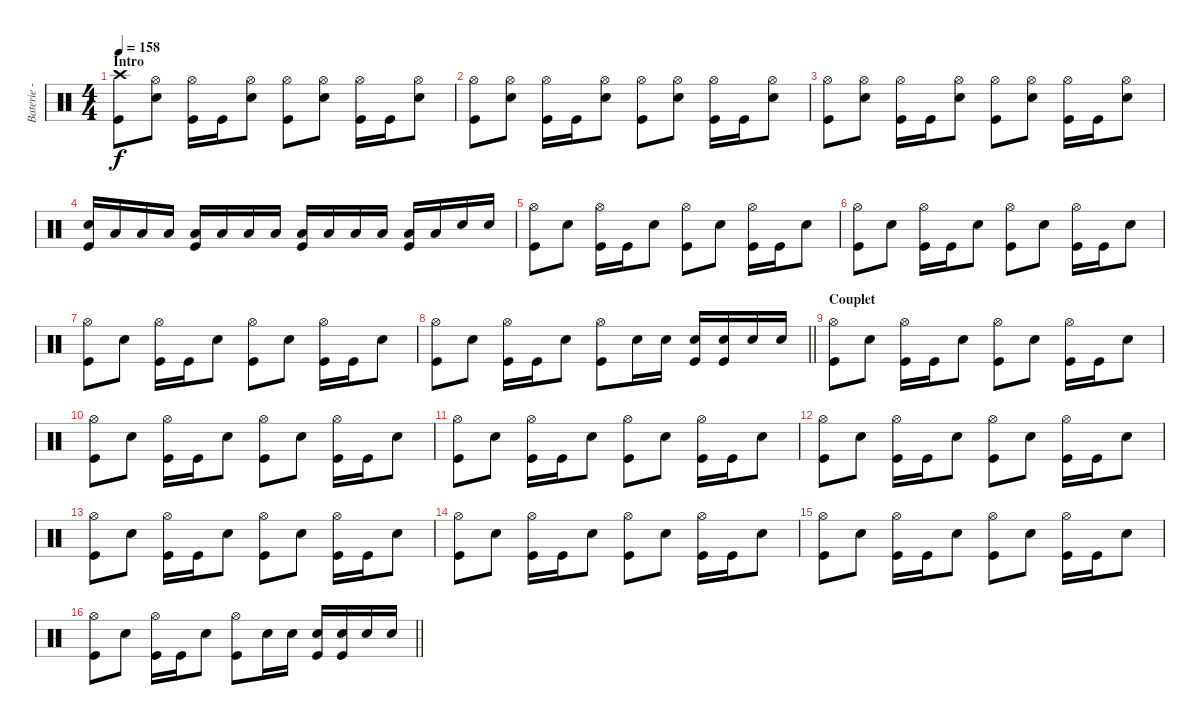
\track ("Baterie - Alex" "Baterie - ") {instrument percussion}
\staff {score}
\articulation defaults
\ts (4 4)
\section ("" "Intro")
\tempo 158
\clef neutral
\ks c
("Crash high (hit)" "Kick (hit)").8{dy f} ("Hi-Hat (open)" "Electric Snare (hit)").8 ("Hi-Hat (open)" "Kick (hit)").16 "Kick (hit)".16 ("Hi-Hat (open)" "Electric Snare (hit)").8 ("Hi-Hat (open)" "Kick (hit)").8 ("Hi-Hat (open)" "Electric Snare (hit)").8 ("Hi-Hat (open)" "Kick (hit)").16 "Kick (hit)".16 ("Hi-Hat (open)" "Electric Snare (hit)").8 |
("Hi-Hat (open)" "Kick (hit)").8 ("Hi-Hat (open)" "Electric Snare (hit)").8 ("Hi-Hat (open)" "Kick (hit)").16 "Kick (hit)".16 ("Hi-Hat (open)" "Electric Snare (hit)").8 ("Hi-Hat (open)" "Kick (hit)").8 ("Hi-Hat (open)" "Electric Snare (hit)").8 ("Hi-Hat (open)" "Kick (hit)").16 "Kick (hit)".16 ("Hi-Hat (open)" "Electric Snare (hit)").8 |
("Hi-Hat (open)" "Kick (hit)").8 ("Hi-Hat (open)" "Electric Snare (hit)").8 ("Hi-Hat (open)" "Kick (hit)").16 "Kick (hit)".16 ("Hi-Hat (open)" "Electric Snare (hit)").8 ("Hi-Hat (open)" "Kick (hit)").8 ("Hi-Hat (open)" "Electric Snare (hit)").8 ("Hi-Hat (open)" "Kick (hit)").16 "Kick (hit)".16 ("Hi-Hat (open)" "Electric Snare (hit)").8 |
("Electric Snare (hit)" "Kick (hit)").16 "Low Floor Tom (hit)".16 "Low Floor Tom (hit)".16 "Low Floor Tom (hit)".16 ("Low Floor Tom (hit)" "Kick (hit)").16 "Low Floor Tom (hit)".16 "Low Floor Tom (hit)".16 "Low Floor Tom (hit)".16 ("Low Floor Tom (hit)" "Kick (hit)").16 "Low Floor Tom (hit)".16 "Low Floor Tom (hit)".16 "Low Floor Tom (hit)".16 ("Low Floor Tom (hit)" "Kick (hit)").16 "Low Floor Tom (hit)".16 "Electric Snare (hit)".16 "Electric Snare (hit)".16 |
("Hi-Hat (open)" "Kick (hit)").8 "Electric Snare (hit)".8 ("Hi-Hat (open)" "Kick (hit)").16 "Kick (hit)".16 "Electric Snare (hit)".8 ("Hi-Hat (open)" "Kick (hit)").8 "Electric Snare (hit)".8 ("Hi-Hat (open)" "Kick (hit)").16 "Kick (hit)".16 "Electric Snare (hit)".8 |
("Hi-Hat (open)" "Kick (hit)").8 "Electric Snare (hit)".8 ("Hi-Hat (open)" "Kick (hit)").16 "Kick (hit)".16 "Electric Snare (hit)".8 ("Hi-Hat (open)" "Kick (hit)").8 "Electric Snare (hit)".8 ("Hi-Hat (open)" "Kick (hit)").16 "Kick (hit)".16 "Electric Snare (hit)".8 |
("Hi-Hat (open)" "Kick (hit)").8 "Electric Snare (hit)".8 ("Hi-Hat (open)" "Kick (hit)").16 "Kick (hit)".16 "Electric Snare (hit)".8 ("Hi-Hat (open)" "Kick (hit)").8 "Electric Snare (hit)".8 ("Hi-Hat (open)" "Kick (hit)").16 "Kick (hit)".16 "Electric Snare (hit)".8 |
\barLineRight lightlight
("Hi-Hat (open)" "Kick (hit)").8 "Electric Snare (hit)".8 ("Hi-Hat (open)" "Kick (hit)").16 "Kick (hit)".16 "Electric Snare (hit)".8 ("Hi-Hat (open)" "Kick (hit)").8 "Electric Snare (hit)".16 "Electric Snare (hit)".16 ("Electric Snare (hit)" "Kick (hit)").16 ("Electric Snare (hit)" "Kick (hit)").16 "Electric Snare (hit)".16 "Electric Snare (hit)".16 |
\section ("" "Couplet")
("Hi-Hat (open)" "Kick (hit)").8 "Electric Snare (hit)".8 ("Hi-Hat (open)" "Kick (hit)").16 "Kick (hit)".16 "Electric Snare (hit)".8 ("Hi-Hat (open)" "Kick (hit)").8 "Electric Snare (hit)".8 ("Hi-Hat (open)" "Kick (hit)").16 "Kick (hit)".16 "Electric Snare (hit)".8 |
("Hi-Hat (open)" "Kick (hit)").8 "Electric Snare (hit)".8 ("Hi-Hat (open)" "Kick (hit)").16 "Kick (hit)".16 "Electric Snare (hit)".8 ("Hi-Hat (open)" "Kick (hit)").8 "Electric Snare (hit)".8 ("Hi-Hat (open)" "Kick (hit)").16 "Kick (hit)".16 "Electric Snare (hit)".8 |
("Hi-Hat (open)" "Kick (hit)").8 "Electric Snare (hit)".8 ("Hi-Hat (open)" "Kick (hit)").16 "Kick (hit)".16 "Electric Snare (hit)".8 ("Hi-Hat (open)" "Kick (hit)").8 "Electric Snare (hit)".8 ("Hi-Hat (open)" "Kick (hit)").16 "Kick (hit)".16 "Electric Snare (hit)".8 |
("Hi-Hat (open)" "Kick (hit)").8 "Electric Snare (hit)".8 ("Hi-Hat (open)" "Kick (hit)").16 "Kick (hit)".16 "Electric Snare (hit)".8 ("Hi-Hat (open)" "Kick (hit)").8 "Electric Snare (hit)".8 ("Hi-Hat (open)" "Kick (hit)").16 "Kick (hit)".16 "Electric Snare (hit)".8 |
("Hi-Hat (open)" "Kick (hit)").8 "Electric Snare (hit)".8 ("Hi-Hat (open)" "Kick (hit)").16 "Kick (hit)".16 "Electric Snare (hit)".8 ("Hi-Hat (open)" "Kick (hit)").8 "Electric Snare (hit)".8 ("Hi-Hat (open)" "Kick (hit)").16 "Kick (hit)".16 "Electric Snare (hit)".8 |
("Hi-Hat (open)" "Kick (hit)").8 "Electric Snare (hit)".8 ("Hi-Hat (open)" "Kick (hit)").16 "Kick (hit)".16 "Electric Snare (hit)".8 ("Hi-Hat (open)" "Kick (hit)").8 "Electric Snare (hit)".8 ("Hi-Hat (open)" "Kick (hit)").16 "Kick (hit)".16 "Electric Snare (hit)".8 |
("Hi-Hat (open)" "Kick (hit)").8 "Electric Snare (hit)".8 ("Hi-Hat (open)" "Kick (hit)").16 "Kick (hit)".16 "Electric Snare (hit)".8 ("Hi-Hat (open)" "Kick (hit)").8 "Electric Snare (hit)".8 ("Hi-Hat (open)" "Kick (hit)").16 "Kick (hit)".16 "Electric Snare (hit)".8 |
\barLineRight lightlight
("Hi-Hat (open)" "Kick (hit)").8 "Electric Snare (hit)".8 ("Hi-Hat (open)" "Kick (hit)").16 "Kick (hit)".16 "Electric Snare (hit)".8 ("Hi-Hat (open)" "Kick (hit)").8 "Electric Snare (hit)".16 "Electric Snare (hit)".16 ("Electric Snare (hit)" "Kick (hit)").16 ("Electric Snare (hit)" "Kick (hit)").16 "Electric Snare (hit)".16 "Electric Snare (hit)".16
